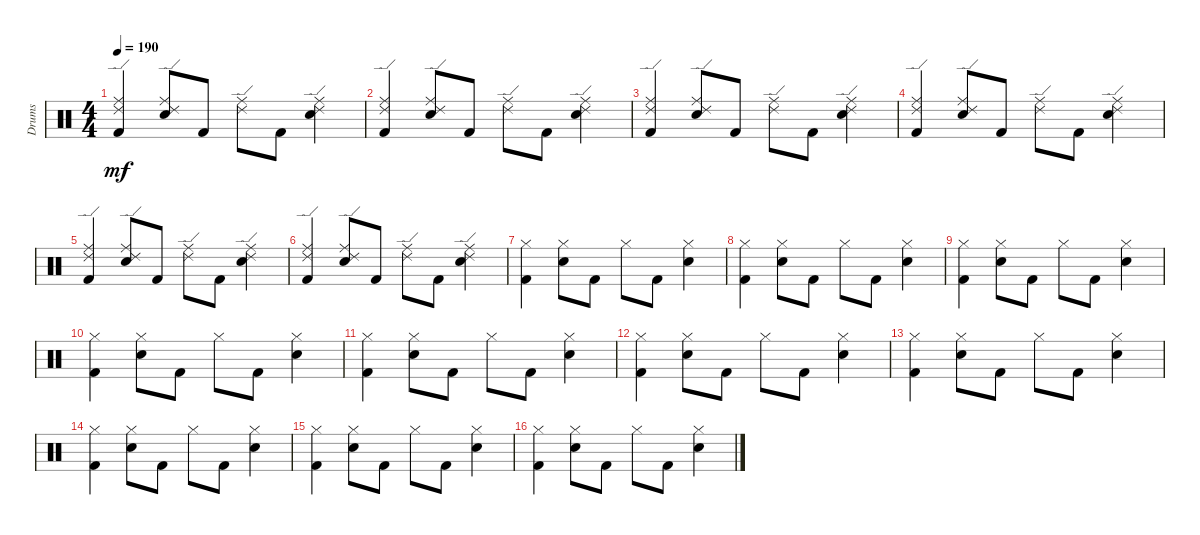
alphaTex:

\track ("Drums" "Drums") {instrument percussion}
\staff {score}
\articulation defaults
\ts (4 4)
\tempo 190
\clef neutral
\ks c
("Ride (edge) 2" "Ride (middle)" "Kick (hit) 2").4{dy mf} ("Ride (edge) 2" "Ride (middle)" "Snare (hit) 2").8 "Kick (hit) 2".8 ("Ride (edge) 2" "Ride (middle)").8 "Kick (hit) 2".8 ("Ride (edge) 2" "Ride (middle)" "Snare (hit) 2").4 |
("Ride (edge) 2" "Ride (middle)" "Kick (hit) 2").4 ("Ride (edge) 2" "Ride (middle)" "Snare (hit) 2").8 "Kick (hit) 2".8 ("Ride (edge) 2" "Ride (middle)").8 "Kick (hit) 2".8 ("Ride (edge) 2" "Ride (middle)" "Snare (hit) 2").4 |
("Ride (edge) 2" "Ride (middle)" "Kick (hit) 2").4 ("Ride (edge) 2" "Ride (middle)" "Snare (hit) 2").8 "Kick (hit) 2".8 ("Ride (edge) 2" "Ride (middle)").8 "Kick (hit) 2".8 ("Ride (edge) 2" "Ride (middle)" "Snare (hit) 2").4 |
("Ride (edge) 2" "Ride (middle)" "Kick (hit) 2").4 ("Ride (edge) 2" "Ride (middle)" "Snare (hit) 2").8 "Kick (hit) 2".8 ("Ride (edge) 2" "Ride (middle)").8 "Kick (hit) 2".8 ("Ride (edge) 2" "Ride (middle)" "Snare (hit) 2").4 |
("Ride (edge) 2" "Ride (middle)" "Kick (hit) 2").4 ("Ride (edge) 2" "Ride (middle)" "Snare (hit) 2").8 "Kick (hit) 2".8 ("Ride (edge) 2" "Ride (middle)").8 "Kick (hit) 2".8 ("Ride (edge) 2" "Ride (middle)" "Snare (hit) 2").4 |
("Ride (edge) 2" "Ride (middle)" "Kick (hit) 2").4 ("Ride (edge) 2" "Ride (middle)" "Snare (hit) 2").8 "Kick (hit) 2".8 ("Ride (edge) 2" "Ride (middle)").8 "Kick (hit) 2".8 ("Ride (edge) 2" "Ride (middle)" "Snare (hit) 2").4 |
("Hi-Hat (closed)" "Kick (hit) 2").4 ("Hi-Hat (closed)" "Snare (hit) 2").8 "Kick (hit) 2".8 "Hi-Hat (closed)".8 "Kick (hit) 2".8 ("Hi-Hat (closed)" "Snare (hit) 2").4 |
("Hi-Hat (closed)" "Kick (hit) 2").4 ("Hi-Hat (closed)" "Snare (hit) 2").8 "Kick (hit) 2".8 "Hi-Hat (closed)".8 "Kick (hit) 2".8 ("Hi-Hat (closed)" "Snare (hit) 2").4 |
("Hi-Hat (closed)" "Kick (hit) 2").4 ("Hi-Hat (closed)" "Snare (hit) 2").8 "Kick (hit) 2".8 "Hi-Hat (closed)".8 "Kick (hit) 2".8 ("Hi-Hat (closed)" "Snare (hit) 2").4 |
("Hi-Hat (closed)" "Kick (hit) 2").4 ("Hi-Hat (closed)" "Snare (hit) 2").8 "Kick (hit) 2".8 "Hi-Hat (closed)".8 "Kick (hit) 2".8 ("Hi-Hat (closed)" "Snare (hit) 2").4 |
("Hi-Hat (closed)" "Kick (hit) 2").4 ("Hi-Hat (closed)" "Snare (hit) 2").8 "Kick (hit) 2".8 "Hi-Hat (closed)".8 "Kick (hit) 2".8 ("Hi-Hat (closed)" "Snare (hit) 2").4 |
("Hi-Hat (closed)" "Kick (hit) 2").4 ("Hi-Hat (closed)" "Snare (hit) 2").8 "Kick (hit) 2".8 "Hi-Hat (closed)".8 "Kick (hit) 2".8 ("Hi-Hat (closed)" "Snare (hit) 2").4 |
("Hi-Hat (closed)" "Kick (hit) 2").4 ("Hi-Hat (closed)" "Snare (hit) 2").8 "Kick (hit) 2".8 "Hi-Hat (closed)".8 "Kick (hit) 2".8 ("Hi-Hat (closed)" "Snare (hit) 2").4 |
("Hi-Hat (closed)" "Kick (hit) 2").4 ("Hi-Hat (closed)" "Snare (hit) 2").8 "Kick (hit) 2".8 "Hi-Hat (closed)".8 "Kick (hit) 2".8 ("Hi-Hat (closed)" "Snare (hit) 2").4 |
("Hi-Hat (closed)" "Kick (hit) 2").4 ("Hi-Hat (closed)" "Snare (hit) 2").8 "Kick (hit) 2".8 "Hi-Hat (closed)".8 "Kick (hit) 2".8 ("Hi-Hat (closed)" "Snare (hit) 2").4 |
("Hi-Hat (closed)" "Kick (hit) 2").4 ("Hi-Hat (closed)" "Snare (hit) 2").8 "Kick (hit) 2".8 "Hi-Hat (closed)".8 "Kick (hit) 2".8 ("Hi-Hat (closed)" "Snare (hit) 2").4
